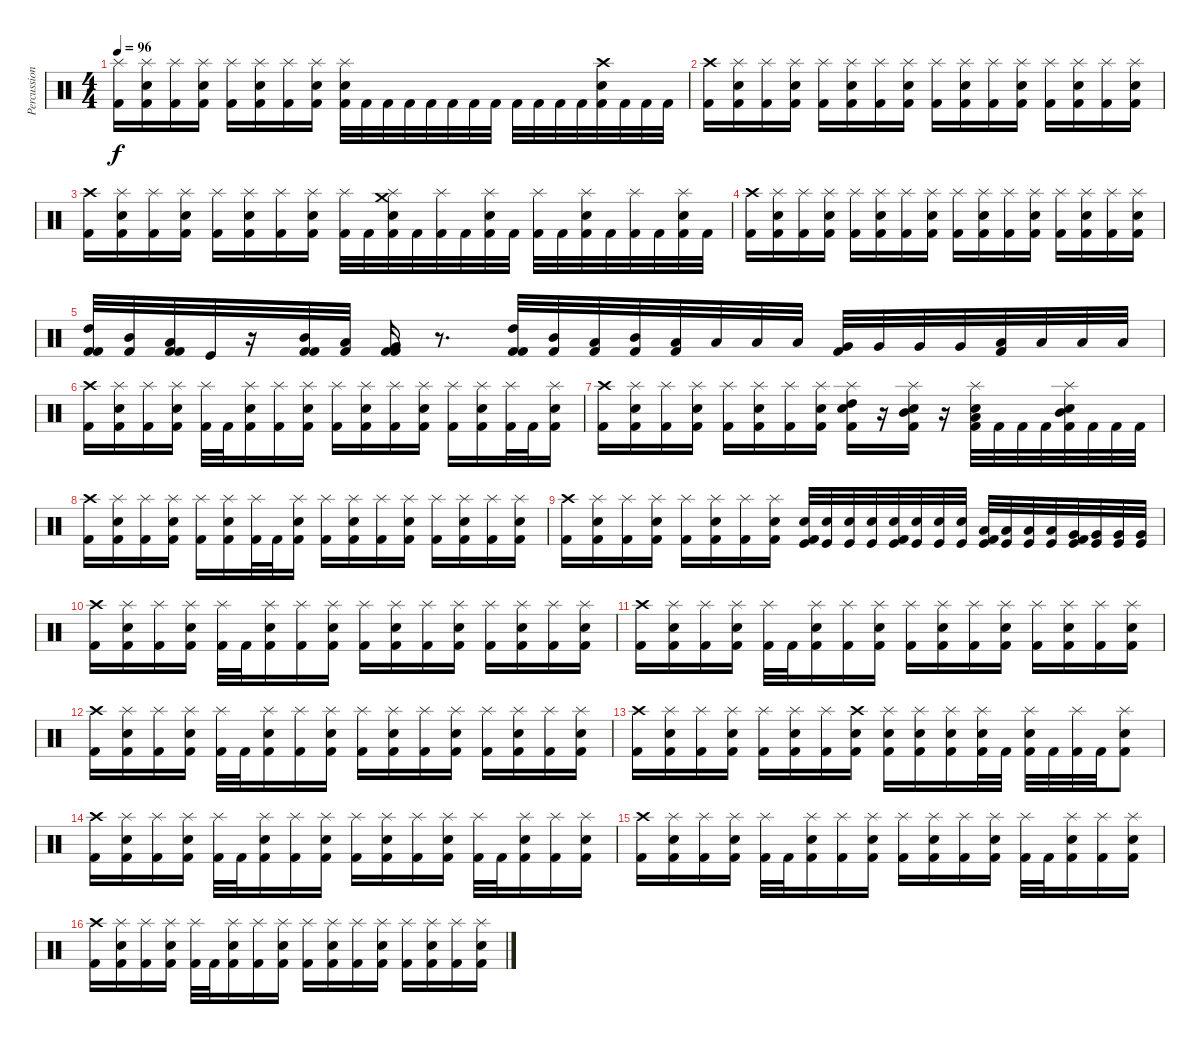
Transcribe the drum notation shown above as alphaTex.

\track ("Percussion" "Percussion") {instrument percussion}
\staff {score}
\articulation defaults
\ts (4 4)
\tempo 96
\clef neutral
\ks c
("Splash (hit)" "Kick (hit) 2").16{dy f} ("Splash (hit)" "Snare (hit) 2" "Kick (hit) 2").16 ("Splash (hit)" "Kick (hit) 2").16 ("Splash (hit)" "Snare (hit) 2" "Kick (hit) 2").16 ("Splash (hit)" "Kick (hit) 2").16 ("Splash (hit)" "Snare (hit) 2" "Kick (hit) 2").16 ("Splash (hit)" "Kick (hit) 2").16 ("Splash (hit)" "Snare (hit) 2" "Kick (hit) 2").16 ("Splash (hit)" "Snare (hit) 2" "Kick (hit) 2").32 "Kick (hit) 2".32 "Kick (hit) 2".32 "Kick (hit) 2".32 "Kick (hit) 2".32 "Kick (hit) 2".32 "Kick (hit) 2".32 "Kick (hit) 2".32 "Kick (hit) 2".32 "Kick (hit) 2".32 "Kick (hit) 2".32 "Kick (hit) 2".32 ("Crash high (hit)" "Snare (hit) 2" "Kick (hit) 2").32 "Kick (hit) 2".32 "Kick (hit) 2".32 "Kick (hit) 2".32 |
("Crash high (hit)" "Kick (hit) 2").16 ("Splash (hit)" "Snare (hit) 2" "Kick (hit) 2").16 ("Splash (hit)" "Kick (hit) 2").16 ("Splash (hit)" "Snare (hit) 2" "Kick (hit) 2").16 ("Splash (hit)" "Kick (hit) 2").16 ("Splash (hit)" "Snare (hit) 2" "Kick (hit) 2").16 ("Splash (hit)" "Kick (hit) 2").16 ("Splash (hit)" "Snare (hit) 2" "Kick (hit) 2").16 ("Splash (hit)" "Kick (hit) 2").16 ("Splash (hit)" "Snare (hit) 2" "Kick (hit) 2").16 ("Splash (hit)" "Kick (hit) 2").16 ("Splash (hit)" "Snare (hit) 2" "Kick (hit) 2").16 ("Splash (hit)" "Kick (hit) 2").16 ("Splash (hit)" "Snare (hit) 2" "Kick (hit) 2").16 ("Splash (hit)" "Kick (hit) 2").16 ("Splash (hit)" "Snare (hit) 2" "Kick (hit) 2").16 |
("Crash high (hit)" "Kick (hit) 2").16 ("Splash (hit)" "Snare (hit) 2" "Kick (hit) 2").16 ("Splash (hit)" "Kick (hit) 2").16 ("Splash (hit)" "Snare (hit) 2" "Kick (hit) 2").16 ("Splash (hit)" "Kick (hit) 2").16 ("Splash (hit)" "Snare (hit) 2" "Kick (hit) 2").16 ("Splash (hit)" "Kick (hit) 2").16 ("Splash (hit)" "Snare (hit) 2" "Kick (hit) 2").16 ("Splash (hit)" "Kick (hit) 2").32 "Kick (hit) 2".32 ("Crash medium (hit)" "Splash (hit)" "Snare (hit) 2" "Kick (hit) 2").32 "Kick (hit) 2".32 ("Splash (hit)" "Kick (hit) 2").32 "Kick (hit) 2".32 ("Splash (hit)" "Snare (hit) 2" "Kick (hit) 2").32 "Kick (hit) 2".32 ("Splash (hit)" "Kick (hit) 2").32 "Kick (hit) 2".32 ("Splash (hit)" "Snare (hit) 2" "Kick (hit) 2").32 "Kick (hit) 2".32 ("Splash (hit)" "Kick (hit) 2").32 "Kick (hit) 2".32 ("Splash (hit)" "Snare (hit) 2" "Kick (hit) 2").32 "Kick (hit) 2".32 |
("Crash high (hit)" "Kick (hit) 2").16 ("Splash (hit)" "Snare (hit) 2" "Kick (hit) 2").16 ("Splash (hit)" "Kick (hit) 2").16 ("Splash (hit)" "Snare (hit) 2" "Kick (hit) 2").16 ("Splash (hit)" "Kick (hit) 2").16 ("Splash (hit)" "Snare (hit) 2" "Kick (hit) 2").16 ("Splash (hit)" "Kick (hit) 2").16 ("Splash (hit)" "Snare (hit) 2" "Kick (hit) 2").16 ("Splash (hit)" "Kick (hit) 2").16 ("Splash (hit)" "Snare (hit) 2" "Kick (hit) 2").16 ("Splash (hit)" "Kick (hit) 2").16 ("Splash (hit)" "Snare (hit) 2" "Kick (hit) 2").16 ("Splash (hit)" "Kick (hit) 2").16 ("Splash (hit)" "Snare (hit) 2" "Kick (hit) 2").16 ("Splash (hit)" "Kick (hit) 2").16 ("Splash (hit)" "Snare (hit) 2" "Kick (hit) 2").16 |
("Kick (hit) 2" "High Tom (hit)" "Kick (hit) 2").32 ("Mid Tom (hit)" "Kick (hit) 2").32 ("Kick (hit) 2" "Low Tom (hit)" "Kick (hit) 2").32 "Kick (hit)".32 r.16 ("Kick (hit) 2" "Mid Tom (hit)" "Kick (hit) 2").32 ("Low Tom (hit)" "Kick (hit) 2").32 ("Kick (hit) 2" "Very Low Tom (hit)" "Kick (hit) 2").16 r.8{d} ("Kick (hit) 2" "High Tom (hit)" "Kick (hit) 2").32 ("Mid Tom (hit)" "Kick (hit) 2").32 ("Low Tom (hit)" "Kick (hit) 2").32 ("Mid Tom (hit)" "Kick (hit) 2").32 ("Kick (hit) 2" "Low Tom (hit)").32 "Low Tom (hit)".32 "Low Tom (hit)".32 "Low Tom (hit)".32 ("Kick (hit) 2" "Very Low Tom (hit)").32 "Very Low Tom (hit)".32 "Very Low Tom (hit)".32 "Very Low Tom (hit)".32 ("Kick (hit) 2" "Low Floor Tom (hit)").32 "Low Floor Tom (hit)".32 "Low Floor Tom (hit)".32 "Low Floor Tom (hit)".32 |
("Crash high (hit)" "Kick (hit) 2").16 ("Splash (hit)" "Snare (hit) 2" "Kick (hit) 2").16 ("Splash (hit)" "Kick (hit) 2").16 ("Splash (hit)" "Snare (hit) 2" "Kick (hit) 2").16 ("Splash (hit)" "Kick (hit) 2").32 "Kick (hit) 2".32 ("Splash (hit)" "Snare (hit) 2" "Kick (hit) 2").16 ("Splash (hit)" "Kick (hit) 2").16 ("Splash (hit)" "Snare (hit) 2" "Kick (hit) 2").16 ("Splash (hit)" "Kick (hit) 2").16 ("Splash (hit)" "Snare (hit) 2" "Kick (hit) 2").16 ("Splash (hit)" "Kick (hit) 2").16 ("Splash (hit)" "Snare (hit) 2" "Kick (hit) 2").16 ("Splash (hit)" "Kick (hit) 2").16 ("Splash (hit)" "Snare (hit) 2" "Kick (hit) 2").16 ("Splash (hit)" "Kick (hit) 2").32 "Kick (hit) 2".32 ("Splash (hit)" "Snare (hit) 2" "Kick (hit) 2").16 |
("Crash high (hit)" "Kick (hit) 2").16 ("Splash (hit)" "Snare (hit) 2" "Kick (hit) 2").16 ("Splash (hit)" "Kick (hit) 2").16 ("Splash (hit)" "Snare (hit) 2" "Kick (hit) 2").16 ("Splash (hit)" "Kick (hit) 2").16 ("Splash (hit)" "Snare (hit) 2" "Kick (hit) 2").16 ("Splash (hit)" "Kick (hit) 2").16 ("Splash (hit)" "Snare (hit) 2" "Kick (hit) 2").16 ("Splash (hit)" "High Tom (hit)" "Snare (hit) 2" "Kick (hit) 2").16 r.16 ("Splash (hit)" "Mid Tom (hit)" "Snare (hit) 2" "Kick (hit) 2").16 r.16 ("Splash (hit)" "Low Tom (hit)" "Snare (hit) 2" "Kick (hit) 2").32 "Kick (hit) 2".32 "Kick (hit) 2".32 "Kick (hit) 2".32 ("Splash (hit)" "Mid Tom (hit)" "Snare (hit) 2" "Kick (hit) 2").32 "Kick (hit) 2".32 "Kick (hit) 2".32 "Kick (hit) 2".32 |
("Crash high (hit)" "Kick (hit) 2").16 ("Splash (hit)" "Snare (hit) 2" "Kick (hit) 2").16 ("Splash (hit)" "Kick (hit) 2").16 ("Splash (hit)" "Snare (hit) 2" "Kick (hit) 2").16 ("Splash (hit)" "Kick (hit) 2").16 ("Splash (hit)" "Snare (hit) 2" "Kick (hit) 2").16 ("Splash (hit)" "Kick (hit) 2").32 "Kick (hit) 2".32 ("Splash (hit)" "Snare (hit) 2" "Kick (hit) 2").16 ("Splash (hit)" "Kick (hit) 2").16 ("Splash (hit)" "Snare (hit) 2" "Kick (hit) 2").16 ("Splash (hit)" "Kick (hit) 2").16 ("Splash (hit)" "Snare (hit) 2" "Kick (hit) 2").16 ("Splash (hit)" "Kick (hit) 2").16 ("Splash (hit)" "Snare (hit) 2" "Kick (hit) 2").16 ("Splash (hit)" "Kick (hit) 2").16 ("Splash (hit)" "Snare (hit) 2" "Kick (hit) 2").16 |
("Crash high (hit)" "Kick (hit) 2").16 ("Splash (hit)" "Snare (hit) 2" "Kick (hit) 2").16 ("Splash (hit)" "Kick (hit) 2").16 ("Splash (hit)" "Snare (hit) 2" "Kick (hit) 2").16 ("Splash (hit)" "Kick (hit) 2").16 ("Splash (hit)" "Snare (hit) 2" "Kick (hit) 2").16 ("Splash (hit)" "Kick (hit) 2").16 ("Splash (hit)" "Snare (hit) 2" "Kick (hit) 2").16 ("Kick (hit)" "Snare (hit) 2" "Kick (hit) 2").32 ("Kick (hit)" "Snare (hit) 2").32 ("Kick (hit)" "Snare (hit) 2").32 ("Kick (hit)" "Snare (hit) 2").32 ("Kick (hit)" "Snare (hit) 2" "Kick (hit) 2").32 ("Kick (hit)" "Snare (hit) 2").32 ("Kick (hit)" "Snare (hit) 2").32 ("Kick (hit)" "Snare (hit) 2").32 ("Kick (hit)" "Low Tom (hit)" "Kick (hit) 2").32 ("Kick (hit)" "Low Tom (hit)").32 ("Kick (hit)" "Low Tom (hit)").32 ("Kick (hit)" "Low Tom (hit)").32 ("Kick (hit)" "Very Low Tom (hit)" "Kick (hit) 2").32 ("Kick (hit)" "Very Low Tom (hit)").32 ("Kick (hit)" "Very Low Tom (hit)").32 ("Kick (hit)" "Very Low Tom (hit)").32 |
("Crash high (hit)" "Kick (hit) 2").16 ("Splash (hit)" "Snare (hit) 2" "Kick (hit) 2").16 ("Splash (hit)" "Kick (hit) 2").16 ("Splash (hit)" "Snare (hit) 2" "Kick (hit) 2").16 ("Splash (hit)" "Kick (hit) 2").32 "Kick (hit) 2".32 ("Splash (hit)" "Snare (hit) 2" "Kick (hit) 2").16 ("Splash (hit)" "Kick (hit) 2").16 ("Splash (hit)" "Snare (hit) 2" "Kick (hit) 2").16 ("Splash (hit)" "Kick (hit) 2").16 ("Splash (hit)" "Snare (hit) 2" "Kick (hit) 2").16 ("Splash (hit)" "Kick (hit) 2").16 ("Splash (hit)" "Snare (hit) 2" "Kick (hit) 2").16 ("Splash (hit)" "Kick (hit) 2").16 ("Splash (hit)" "Snare (hit) 2" "Kick (hit) 2").16 ("Splash (hit)" "Kick (hit) 2").16 ("Splash (hit)" "Snare (hit) 2" "Kick (hit) 2").16 |
("Crash high (hit)" "Kick (hit) 2").16 ("Splash (hit)" "Snare (hit) 2" "Kick (hit) 2").16 ("Splash (hit)" "Kick (hit) 2").16 ("Splash (hit)" "Snare (hit) 2" "Kick (hit) 2").16 ("Splash (hit)" "Kick (hit) 2").32 "Kick (hit) 2".32 ("Splash (hit)" "Snare (hit) 2" "Kick (hit) 2").16 ("Splash (hit)" "Kick (hit) 2").16 ("Splash (hit)" "Snare (hit) 2" "Kick (hit) 2").16 ("Splash (hit)" "Kick (hit) 2").16 ("Splash (hit)" "Snare (hit) 2" "Kick (hit) 2").16 ("Splash (hit)" "Kick (hit) 2").16 ("Splash (hit)" "Snare (hit) 2" "Kick (hit) 2").16 ("Splash (hit)" "Kick (hit) 2").16 ("Splash (hit)" "Snare (hit) 2" "Kick (hit) 2").16 ("Splash (hit)" "Kick (hit) 2").16 ("Splash (hit)" "Snare (hit) 2" "Kick (hit) 2").16 |
("Crash high (hit)" "Kick (hit) 2").16 ("Splash (hit)" "Snare (hit) 2" "Kick (hit) 2").16 ("Splash (hit)" "Kick (hit) 2").16 ("Splash (hit)" "Snare (hit) 2" "Kick (hit) 2").16 ("Splash (hit)" "Kick (hit) 2").32 "Kick (hit) 2".32 ("Splash (hit)" "Snare (hit) 2" "Kick (hit) 2").16 ("Splash (hit)" "Kick (hit) 2").16 ("Splash (hit)" "Snare (hit) 2" "Kick (hit) 2").16 ("Splash (hit)" "Kick (hit) 2").16 ("Splash (hit)" "Snare (hit) 2" "Kick (hit) 2").16 ("Splash (hit)" "Kick (hit) 2").16 ("Splash (hit)" "Snare (hit) 2" "Kick (hit) 2").16 ("Splash (hit)" "Kick (hit) 2").16 ("Splash (hit)" "Snare (hit) 2" "Kick (hit) 2").16 ("Splash (hit)" "Kick (hit) 2").16 ("Splash (hit)" "Snare (hit) 2" "Kick (hit) 2").16 |
("Crash high (hit)" "Kick (hit) 2").16 ("Splash (hit)" "Snare (hit) 2" "Kick (hit) 2").16 ("Splash (hit)" "Kick (hit) 2").16 ("Splash (hit)" "Snare (hit) 2" "Kick (hit) 2").16 ("Splash (hit)" "Kick (hit) 2").16 ("Splash (hit)" "Snare (hit) 2" "Kick (hit) 2").16 ("Splash (hit)" "Kick (hit) 2").16 ("Crash high (hit)" "Snare (hit) 2" "Kick (hit) 2").16 ("Splash (hit)" "Snare (hit) 2" "Kick (hit) 2").16 ("Splash (hit)" "Snare (hit) 2" "Kick (hit) 2").16 ("Splash (hit)" "Snare (hit) 2" "Kick (hit) 2").16 ("Splash (hit)" "Snare (hit) 2" "Kick (hit) 2").32 "Kick (hit) 2".32 ("Splash (hit)" "Snare (hit) 2" "Kick (hit) 2").32 "Kick (hit) 2".32 ("Splash (hit)" "Kick (hit) 2").32 "Kick (hit) 2".32 ("Splash (hit)" "Snare (hit) 2" "Kick (hit) 2").8 |
("Crash high (hit)" "Kick (hit) 2").16 ("Splash (hit)" "Snare (hit) 2" "Kick (hit) 2").16 ("Splash (hit)" "Kick (hit) 2").16 ("Splash (hit)" "Snare (hit) 2" "Kick (hit) 2").16 ("Splash (hit)" "Kick (hit) 2").32 "Kick (hit) 2".32 ("Splash (hit)" "Snare (hit) 2" "Kick (hit) 2").16 ("Splash (hit)" "Kick (hit) 2").16 ("Splash (hit)" "Snare (hit) 2" "Kick (hit) 2").16 ("Splash (hit)" "Kick (hit) 2").16 ("Splash (hit)" "Snare (hit) 2" "Kick (hit) 2").16 ("Splash (hit)" "Kick (hit) 2").16 ("Splash (hit)" "Snare (hit) 2" "Kick (hit) 2").16 ("Splash (hit)" "Kick (hit) 2").32 "Kick (hit) 2".32 ("Splash (hit)" "Snare (hit) 2" "Kick (hit) 2").16 ("Splash (hit)" "Kick (hit) 2").16 ("Splash (hit)" "Snare (hit) 2" "Kick (hit) 2").16 |
("Crash high (hit)" "Kick (hit) 2").16 ("Splash (hit)" "Snare (hit) 2" "Kick (hit) 2").16 ("Splash (hit)" "Kick (hit) 2").16 ("Splash (hit)" "Snare (hit) 2" "Kick (hit) 2").16 ("Splash (hit)" "Kick (hit) 2").32 "Kick (hit) 2".32 ("Splash (hit)" "Snare (hit) 2" "Kick (hit) 2").16 ("Splash (hit)" "Kick (hit) 2").16 ("Splash (hit)" "Snare (hit) 2" "Kick (hit) 2").16 ("Splash (hit)" "Kick (hit) 2").16 ("Splash (hit)" "Snare (hit) 2" "Kick (hit) 2").16 ("Splash (hit)" "Kick (hit) 2").16 ("Splash (hit)" "Snare (hit) 2" "Kick (hit) 2").16 ("Splash (hit)" "Kick (hit) 2").32 "Kick (hit) 2".32 ("Splash (hit)" "Snare (hit) 2" "Kick (hit) 2").16 ("Splash (hit)" "Kick (hit) 2").16 ("Splash (hit)" "Snare (hit) 2" "Kick (hit) 2").16 |
("Crash high (hit)" "Kick (hit) 2").16 ("Splash (hit)" "Snare (hit) 2" "Kick (hit) 2").16 ("Splash (hit)" "Kick (hit) 2").16 ("Splash (hit)" "Snare (hit) 2" "Kick (hit) 2").16 ("Splash (hit)" "Kick (hit) 2").32 "Kick (hit) 2".32 ("Splash (hit)" "Snare (hit) 2" "Kick (hit) 2").16 ("Splash (hit)" "Kick (hit) 2").16 ("Splash (hit)" "Snare (hit) 2" "Kick (hit) 2").16 ("Splash (hit)" "Kick (hit) 2").16 ("Splash (hit)" "Snare (hit) 2" "Kick (hit) 2").16 ("Splash (hit)" "Kick (hit) 2").16 ("Splash (hit)" "Snare (hit) 2" "Kick (hit) 2").16 ("Splash (hit)" "Kick (hit) 2").16 ("Splash (hit)" "Snare (hit) 2" "Kick (hit) 2").16 ("Splash (hit)" "Kick (hit) 2").16 ("Splash (hit)" "Snare (hit) 2" "Kick (hit) 2").16
